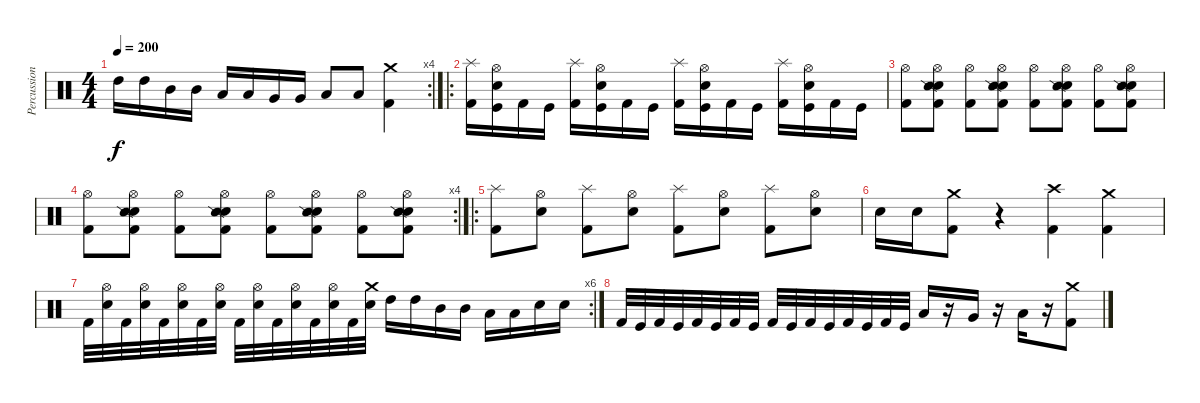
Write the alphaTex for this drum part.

\track ("Percussion" "Percussion") {instrument percussion}
\staff {score}
\articulation defaults
\rc 4
\ts (4 4)
\tempo 200
\clef neutral
\ks c "High Tom (hit)".16{dy f} "High Tom (hit)".16 "Mid Tom (hit)".16 "Mid Tom (hit)".16 "Low Tom (hit)".16 "Low Tom (hit)".16 "Very Low Tom (hit)".16 "Very Low Tom (hit)".16 "Low Floor Tom (hit)".8 "Low Floor Tom (hit)".8
("Crash medium (hit)" "Kick (hit) 2").4 |
\ro
("Splash (hit)" "Kick (hit) 2").16 ("Hi-Hat (open)" "Electric Snare (hit)" "Kick (hit)").16 "Kick (hit) 2".16 "Kick (hit)".16 ("Splash (hit)" "Kick (hit) 2").16 ("Hi-Hat (open)" "Electric Snare (hit)" "Kick (hit)").16 "Kick (hit) 2".16 "Kick (hit)".16 ("Splash (hit)" "Kick (hit) 2").16 ("Hi-Hat (open)" "Electric Snare (hit)" "Kick (hit)").16 "Kick (hit) 2".16 "Kick (hit)".16 ("Splash (hit)" "Kick (hit) 2").16 ("Hi-Hat (open)" "Electric Snare (hit)" "Kick (hit)").16 "Kick (hit) 2".16 "Kick (hit)".16 |
("Hi-Hat (open)" "Kick (hit) 2").8 ("Hi-Hat (open)" "Electric Snare (hit)" "Snare (side stick) 2" "Kick (hit) 2").8 ("Hi-Hat (open)" "Kick (hit) 2").8 ("Hi-Hat (open)" "Electric Snare (hit)" "Snare (side stick) 2" "Kick (hit) 2").8 ("Hi-Hat (open)" "Kick (hit) 2").8 ("Hi-Hat (open)" "Electric Snare (hit)" "Snare (side stick) 2" "Kick (hit) 2").8 ("Hi-Hat (open)" "Kick (hit) 2").8 ("Hi-Hat (open)" "Electric Snare (hit)" "Snare (side stick) 2" "Kick (hit) 2").8 |
\rc 4
("Hi-Hat (open)" "Kick (hit) 2").8 ("Hi-Hat (open)" "Electric Snare (hit)" "Snare (side stick) 2" "Kick (hit) 2").8 ("Hi-Hat (open)" "Kick (hit) 2").8 ("Hi-Hat (open)" "Electric Snare (hit)" "Snare (side stick) 2" "Kick (hit) 2").8 ("Hi-Hat (open)" "Kick (hit) 2").8 ("Hi-Hat (open)" "Electric Snare (hit)" "Snare (side stick) 2" "Kick (hit) 2").8 ("Hi-Hat (open)" "Kick (hit) 2").8 ("Hi-Hat (open)" "Electric Snare (hit)" "Snare (side stick) 2" "Kick (hit) 2").8 |
\ro
("Splash (hit)" "Kick (hit) 2").8 ("Hi-Hat (open)" "Electric Snare (hit)").8 ("Splash (hit)" "Kick (hit) 2").8 ("Hi-Hat (open)" "Electric Snare (hit)").8 ("Splash (hit)" "Kick (hit) 2").8 ("Hi-Hat (open)" "Electric Snare (hit)").8 ("Splash (hit)" "Kick (hit) 2").8 ("Hi-Hat (open)" "Electric Snare (hit)").8 |
"Electric Snare (hit)".16 "Electric Snare (hit)".16 ("Crash medium (hit)" "Kick (hit) 2").8 r.4 ("Crash high (hit)" "Kick (hit) 2").4 ("Crash medium (hit)" "Kick (hit) 2").4 |
\rc 6 "Kick (hit) 2".32
("Hi-Hat (open)" "Electric Snare (hit)").32 "Kick (hit) 2".32 ("Hi-Hat (open)" "Electric Snare (hit)").32 "Kick (hit) 2".32 ("Hi-Hat (open)" "Electric Snare (hit)").32 "Kick (hit) 2".32 ("Hi-Hat (open)" "Electric Snare (hit)").32 "Kick (hit) 2".32 ("Hi-Hat (open)" "Electric Snare (hit)").32 "Kick (hit) 2".32 ("Hi-Hat (open)" "Electric Snare (hit)").32 "Kick (hit) 2".32 ("Hi-Hat (open)" "Electric Snare (hit)").32 "Kick (hit) 2".32 ("Crash medium (hit)" "Electric Snare (hit)").32 "High Tom (hit)".16 "High Tom (hit)".16 "Mid Tom (hit)".16 "Mid Tom (hit)".16 "Low Tom (hit)".16 "Low Tom (hit)".16 "Electric Snare (hit)".16 "Electric Snare (hit)".16 |
"Kick (hit) 2".32 "Kick (hit)".32 "Kick (hit) 2".32 "Kick (hit)".32 "Kick (hit) 2".32 "Kick (hit)".32 "Kick (hit) 2".32 "Kick (hit)".32 "Kick (hit) 2".32 "Kick (hit)".32 "Kick (hit) 2".32 "Kick (hit)".32 "Kick (hit) 2".32 "Kick (hit)".32 "Kick (hit) 2".32 "Kick (hit)".32 "Low Tom (hit)".16 r.16 "Very Low Tom (hit)".16 r.16 "Low Floor Tom (hit)".16 r.16 ("Crash medium (hit)" "Kick (hit) 2").8
